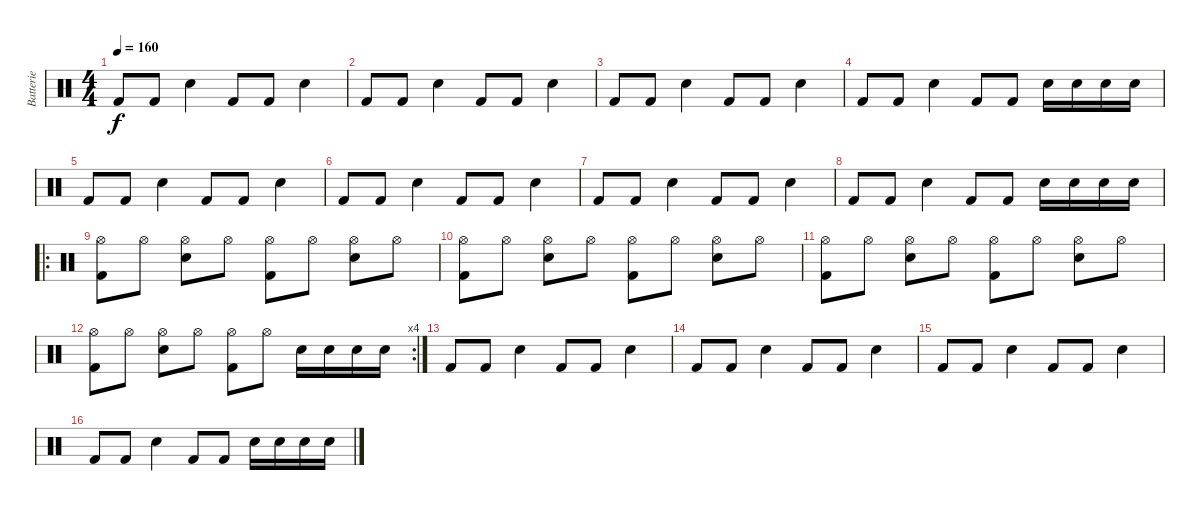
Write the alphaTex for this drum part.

\track ("Batterie" "Batterie") {instrument percussion}
\staff {score}
\articulation defaults
\ts (4 4)
\tempo 160
\clef neutral
\ks c "Kick (hit) 2".8{dy f} "Kick (hit) 2".8 "Electric Snare (hit)".4 "Kick (hit) 2".8 "Kick (hit) 2".8 "Electric Snare (hit)".4
|
"Kick (hit) 2".8 "Kick (hit) 2".8 "Electric Snare (hit)".4 "Kick (hit) 2".8 "Kick (hit) 2".8 "Electric Snare (hit)".4 |
"Kick (hit) 2".8 "Kick (hit) 2".8 "Electric Snare (hit)".4 "Kick (hit) 2".8 "Kick (hit) 2".8 "Electric Snare (hit)".4 |
"Kick (hit) 2".8 "Kick (hit) 2".8 "Electric Snare (hit)".4 "Kick (hit) 2".8 "Kick (hit) 2".8 "Electric Snare (hit)".16 "Electric Snare (hit)".16 "Electric Snare (hit)".16 "Electric Snare (hit)".16 |
"Kick (hit) 2".8 "Kick (hit) 2".8 "Electric Snare (hit)".4 "Kick (hit) 2".8 "Kick (hit) 2".8 "Electric Snare (hit)".4 |
"Kick (hit) 2".8 "Kick (hit) 2".8 "Electric Snare (hit)".4 "Kick (hit) 2".8 "Kick (hit) 2".8 "Electric Snare (hit)".4 |
"Kick (hit) 2".8 "Kick (hit) 2".8 "Electric Snare (hit)".4 "Kick (hit) 2".8 "Kick (hit) 2".8 "Electric Snare (hit)".4 |
"Kick (hit) 2".8 "Kick (hit) 2".8 "Electric Snare (hit)".4 "Kick (hit) 2".8 "Kick (hit) 2".8 "Electric Snare (hit)".16 "Electric Snare (hit)".16 "Electric Snare (hit)".16 "Electric Snare (hit)".16 |
\ro
("Kick (hit) 2" "Hi-Hat (open)").8 "Hi-Hat (open)".8 ("Electric Snare (hit)" "Hi-Hat (open)").8 "Hi-Hat (open)".8 ("Kick (hit) 2" "Hi-Hat (open)").8 "Hi-Hat (open)".8 ("Electric Snare (hit)" "Hi-Hat (open)").8 "Hi-Hat (open)".8 |
("Kick (hit) 2" "Hi-Hat (open)").8 "Hi-Hat (open)".8 ("Electric Snare (hit)" "Hi-Hat (open)").8 "Hi-Hat (open)".8 ("Kick (hit) 2" "Hi-Hat (open)").8 "Hi-Hat (open)".8 ("Electric Snare (hit)" "Hi-Hat (open)").8 "Hi-Hat (open)".8 |
("Kick (hit) 2" "Hi-Hat (open)").8 "Hi-Hat (open)".8 ("Electric Snare (hit)" "Hi-Hat (open)").8 "Hi-Hat (open)".8 ("Kick (hit) 2" "Hi-Hat (open)").8 "Hi-Hat (open)".8 ("Electric Snare (hit)" "Hi-Hat (open)").8 "Hi-Hat (open)".8 |
\rc 4
("Kick (hit) 2" "Hi-Hat (open)").8 "Hi-Hat (open)".8 ("Electric Snare (hit)" "Hi-Hat (open)").8 "Hi-Hat (open)".8 ("Kick (hit) 2" "Hi-Hat (open)").8 "Hi-Hat (open)".8 "Electric Snare (hit)".16 "Electric Snare (hit)".16 "Electric Snare (hit)".16 "Electric Snare (hit)".16 |
"Kick (hit) 2".8 "Kick (hit) 2".8 "Electric Snare (hit)".4 "Kick (hit) 2".8 "Kick (hit) 2".8 "Electric Snare (hit)".4 |
"Kick (hit) 2".8 "Kick (hit) 2".8 "Electric Snare (hit)".4 "Kick (hit) 2".8 "Kick (hit) 2".8 "Electric Snare (hit)".4 |
"Kick (hit) 2".8 "Kick (hit) 2".8 "Electric Snare (hit)".4 "Kick (hit) 2".8 "Kick (hit) 2".8 "Electric Snare (hit)".4 |
"Kick (hit) 2".8 "Kick (hit) 2".8 "Electric Snare (hit)".4 "Kick (hit) 2".8 "Kick (hit) 2".8 "Electric Snare (hit)".16 "Electric Snare (hit)".16 "Electric Snare (hit)".16 "Electric Snare (hit)".16
